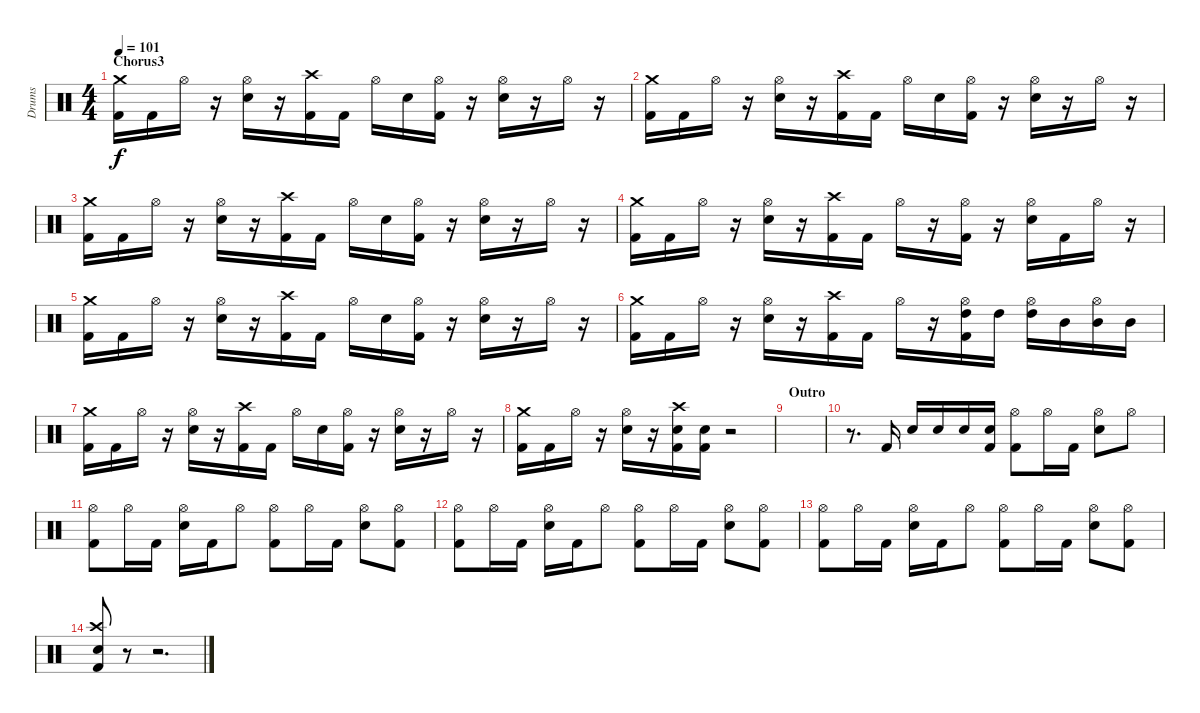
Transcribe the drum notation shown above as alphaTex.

\track ("Drums" "Drums") {instrument percussion}
\staff {score}
\articulation defaults
\ts (4 4)
\section ("" "Chorus3")
\tempo 101
\clef neutral
\ks c
("Crash medium (hit)" "Kick (hit) 2").16{dy f} "Kick (hit) 2".16 "Hi-Hat (open)".16 r.16 ("Hi-Hat (open)" "Electric Snare (hit)").16 r.16 ("Crash high (hit)" "Kick (hit) 2").16 "Kick (hit) 2".16 "Hi-Hat (open)".16 "Electric Snare (hit)".16 ("Hi-Hat (open)" "Kick (hit) 2").16 r.16 ("Hi-Hat (open)" "Electric Snare (hit)").16 r.16 "Hi-Hat (open)".16 r.16 |
("Crash medium (hit)" "Kick (hit) 2").16 "Kick (hit) 2".16 "Hi-Hat (open)".16 r.16 ("Hi-Hat (open)" "Electric Snare (hit)").16 r.16 ("Crash high (hit)" "Kick (hit) 2").16 "Kick (hit) 2".16 "Hi-Hat (open)".16 "Electric Snare (hit)".16 ("Hi-Hat (open)" "Kick (hit) 2").16 r.16 ("Hi-Hat (open)" "Electric Snare (hit)").16 r.16 "Hi-Hat (open)".16 r.16 |
("Crash medium (hit)" "Kick (hit) 2").16 "Kick (hit) 2".16 "Hi-Hat (open)".16 r.16 ("Hi-Hat (open)" "Electric Snare (hit)").16 r.16 ("Crash high (hit)" "Kick (hit) 2").16 "Kick (hit) 2".16 "Hi-Hat (open)".16 "Electric Snare (hit)".16 ("Hi-Hat (open)" "Kick (hit) 2").16 r.16 ("Hi-Hat (open)" "Electric Snare (hit)").16 r.16 "Hi-Hat (open)".16 r.16 |
("Crash medium (hit)" "Kick (hit) 2").16 "Kick (hit) 2".16 "Hi-Hat (open)".16 r.16 ("Hi-Hat (open)" "Electric Snare (hit)").16 r.16 ("Crash high (hit)" "Kick (hit) 2").16 "Kick (hit) 2".16 "Hi-Hat (open)".16 r.16 ("Hi-Hat (open)" "Kick (hit) 2").16 r.16 ("Hi-Hat (open)" "Electric Snare (hit)").16 "Kick (hit) 2".16 "Hi-Hat (open)".16 r.16 |
("Crash medium (hit)" "Kick (hit) 2").16 "Kick (hit) 2".16 "Hi-Hat (open)".16 r.16 ("Hi-Hat (open)" "Electric Snare (hit)").16 r.16 ("Crash high (hit)" "Kick (hit) 2").16 "Kick (hit) 2".16 "Hi-Hat (open)".16 "Electric Snare (hit)".16 ("Hi-Hat (open)" "Kick (hit) 2").16 r.16 ("Hi-Hat (open)" "Electric Snare (hit)").16 r.16 "Hi-Hat (open)".16 r.16 |
("Crash medium (hit)" "Kick (hit) 2").16 "Kick (hit) 2".16 "Hi-Hat (open)".16 r.16 ("Hi-Hat (open)" "Electric Snare (hit)").16 r.16 ("Crash high (hit)" "Kick (hit) 2").16 "Kick (hit) 2".16 "Hi-Hat (open)".16 r.16 ("Hi-Hat (open)" "High Tom (hit)" "Kick (hit) 2").16 "High Tom (hit)".16 ("Hi-Hat (open)" "High Tom (hit)").16 "Mid Tom (hit)".16 ("Hi-Hat (open)" "Mid Tom (hit)").16 "Mid Tom (hit)".16 |
("Crash medium (hit)" "Kick (hit) 2").16 "Kick (hit) 2".16 "Hi-Hat (open)".16 r.16 ("Hi-Hat (open)" "Electric Snare (hit)").16 r.16 ("Crash high (hit)" "Kick (hit) 2").16 "Kick (hit) 2".16 "Hi-Hat (open)".16 "Electric Snare (hit)".16 ("Hi-Hat (open)" "Kick (hit) 2").16 r.16 ("Hi-Hat (open)" "Electric Snare (hit)").16 r.16 "Hi-Hat (open)".16 r.16 |
("Crash medium (hit)" "Kick (hit) 2").16 "Kick (hit) 2".16 "Hi-Hat (open)".16 r.16 ("Hi-Hat (open)" "Electric Snare (hit)").16 r.16 ("Crash high (hit)" "Electric Snare (hit)" "Kick (hit) 2").16 ("Electric Snare (hit)" "Kick (hit) 2").16 r.2 |
\section ("" "Outro")
|
r.8{d} "Kick (hit) 2".16 "Electric Snare (hit)".16 "Electric Snare (hit)".16 "Electric Snare (hit)".16 ("Electric Snare (hit)" "Kick (hit) 2").16 ("Hi-Hat (open)" "Kick (hit) 2").8 "Hi-Hat (open)".16 "Kick (hit) 2".16 ("Hi-Hat (open)" "Electric Snare (hit)").8 "Hi-Hat (open)".8 |
("Hi-Hat (open)" "Kick (hit) 2").8 "Hi-Hat (open)".16 "Kick (hit) 2".16 ("Hi-Hat (open)" "Electric Snare (hit)").16 "Kick (hit) 2".16 "Hi-Hat (open)".8 ("Hi-Hat (open)" "Kick (hit) 2").8 "Hi-Hat (open)".16 "Kick (hit) 2".16 ("Hi-Hat (open)" "Electric Snare (hit)").8 ("Hi-Hat (open)" "Kick (hit) 2").8 |
("Hi-Hat (open)" "Kick (hit) 2").8 "Hi-Hat (open)".16 "Kick (hit) 2".16 ("Hi-Hat (open)" "Electric Snare (hit)").16 "Kick (hit) 2".16 "Hi-Hat (open)".8 ("Hi-Hat (open)" "Kick (hit) 2").8 "Hi-Hat (open)".16 "Kick (hit) 2".16 ("Hi-Hat (open)" "Electric Snare (hit)").8 ("Hi-Hat (open)" "Kick (hit) 2").8 |
("Hi-Hat (open)" "Kick (hit) 2").8 "Hi-Hat (open)".16 "Kick (hit) 2".16 ("Hi-Hat (open)" "Electric Snare (hit)").16 "Kick (hit) 2".16 "Hi-Hat (open)".8 ("Hi-Hat (open)" "Kick (hit) 2").8 "Hi-Hat (open)".16 "Kick (hit) 2".16 ("Hi-Hat (open)" "Electric Snare (hit)").8 ("Hi-Hat (open)" "Kick (hit) 2").8 |
("Crash high (hit)" "Snare (hit) 2" "Kick (hit) 2").8 r.8 r.2{d}
